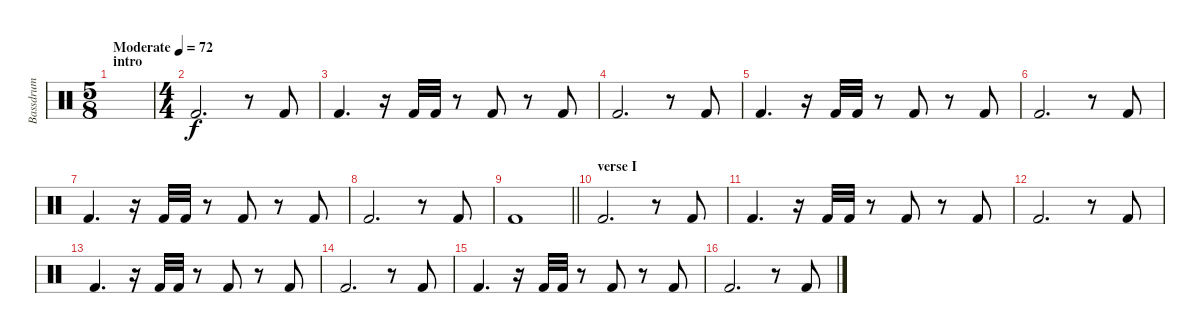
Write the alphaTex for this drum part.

\track ("Bassdrum" "Bassdrum") {instrument percussion}
\staff {score}
\articulation defaults
\ts (5 8)
\section ("" "intro")
\tempo (72 "Moderate")
\clef neutral
\ks c
|
\ts (4 4)
"Kick (hit) 2".2{d volume 16} r.8 "Kick (hit) 2".8 |
"Kick (hit) 2".4{d} r.16 "Kick (hit) 2".32 "Kick (hit) 2".32 r.8 "Kick (hit) 2".8 r.8 "Kick (hit) 2".8 |
"Kick (hit) 2".2{d} r.8 "Kick (hit) 2".8 |
"Kick (hit) 2".4{d} r.16 "Kick (hit) 2".32 "Kick (hit) 2".32 r.8 "Kick (hit) 2".8 r.8 "Kick (hit) 2".8 |
"Kick (hit) 2".2{d} r.8 "Kick (hit) 2".8 |
"Kick (hit) 2".4{d} r.16 "Kick (hit) 2".32 "Kick (hit) 2".32 r.8 "Kick (hit) 2".8 r.8 "Kick (hit) 2".8 |
"Kick (hit) 2".2{d} r.8 "Kick (hit) 2".8 |
\barLineRight lightlight "Kick (hit) 2".1
|
\section ("" "verse I")
"Kick (hit) 2".2{d} r.8 "Kick (hit) 2".8 |
"Kick (hit) 2".4{d} r.16 "Kick (hit) 2".32 "Kick (hit) 2".32 r.8 "Kick (hit) 2".8 r.8 "Kick (hit) 2".8 |
"Kick (hit) 2".2{d} r.8 "Kick (hit) 2".8 |
"Kick (hit) 2".4{d} r.16 "Kick (hit) 2".32 "Kick (hit) 2".32 r.8 "Kick (hit) 2".8 r.8 "Kick (hit) 2".8 |
"Kick (hit) 2".2{d} r.8 "Kick (hit) 2".8 |
"Kick (hit) 2".4{d} r.16 "Kick (hit) 2".32 "Kick (hit) 2".32 r.8 "Kick (hit) 2".8 r.8 "Kick (hit) 2".8 |
"Kick (hit) 2".2{d} r.8 "Kick (hit) 2".8
